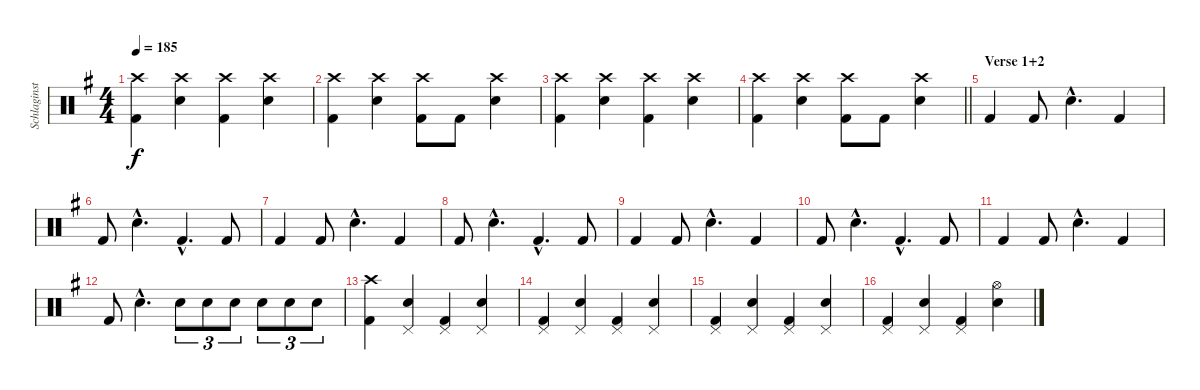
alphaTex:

\track ("Schlaginstrumente - Auswahl" "Schlaginst") {instrument percussion}
\staff {score}
\articulation defaults
\ts (4 4)
\tempo 185
\clef neutral
\ks eminor
("Kick (hit) 2" "Crash high (hit)").4{dy f} ("Snare (hit) 2" "Crash high (hit)").4 ("Kick (hit) 2" "Crash high (hit)").4 ("Snare (hit) 2" "Crash high (hit)").4 |
("Kick (hit) 2" "Crash high (hit)").4 ("Snare (hit) 2" "Crash high (hit)").4 ("Kick (hit) 2" "Crash high (hit)").8 "Kick (hit) 2".8 ("Snare (hit) 2" "Crash high (hit)").4 |
("Kick (hit) 2" "Crash high (hit)").4 ("Snare (hit) 2" "Crash high (hit)").4 ("Kick (hit) 2" "Crash high (hit)").4 ("Snare (hit) 2" "Crash high (hit)").4 |
\barLineRight lightlight
("Kick (hit) 2" "Crash high (hit)").4 ("Snare (hit) 2" "Crash high (hit)").4 ("Kick (hit) 2" "Crash high (hit)").8 "Kick (hit) 2".8 ("Snare (hit) 2" "Crash high (hit)").4 |
\section ("" "Verse 1+2")
"Kick (hit) 2".4 "Kick (hit) 2".8 "Snare (hit) 2"{hac}.4{d} "Kick (hit) 2".4 |
"Kick (hit) 2".8 "Snare (hit) 2"{hac}.4{d} "Kick (hit) 2"{hac}.4{d} "Kick (hit) 2".8 |
"Kick (hit) 2".4 "Kick (hit) 2".8 "Snare (hit) 2"{hac}.4{d} "Kick (hit) 2".4 |
"Kick (hit) 2".8 "Snare (hit) 2"{hac}.4{d} "Kick (hit) 2"{hac}.4{d} "Kick (hit) 2".8 |
"Kick (hit) 2".4 "Kick (hit) 2".8 "Snare (hit) 2"{hac}.4{d} "Kick (hit) 2".4 |
"Kick (hit) 2".8 "Snare (hit) 2"{hac}.4{d} "Kick (hit) 2"{hac}.4{d} "Kick (hit) 2".8 |
"Kick (hit) 2".4 "Kick (hit) 2".8 "Snare (hit) 2"{hac}.4{d} "Kick (hit) 2".4 |
"Kick (hit) 2".8 "Snare (hit) 2"{hac}.4{d} "Snare (hit) 2".8{tu (3 2)} "Snare (hit) 2".8{tu (3 2)} "Snare (hit) 2".8{tu (3 2)} "Snare (hit) 2".8{tu (3 2)} "Snare (hit) 2".8{tu (3 2)} "Snare (hit) 2".8{tu (3 2)} |
("Kick (hit) 2" "Crash high (hit)").4 ("Snare (hit) 2" "Pedal Hi-Hat (hit)").4 ("Kick (hit) 2" "Pedal Hi-Hat (hit)").4 ("Snare (hit) 2" "Pedal Hi-Hat (hit)").4 |
("Kick (hit) 2" "Pedal Hi-Hat (hit)").4 ("Snare (hit) 2" "Pedal Hi-Hat (hit)").4 ("Kick (hit) 2" "Pedal Hi-Hat (hit)").4 ("Snare (hit) 2" "Pedal Hi-Hat (hit)").4 |
("Kick (hit) 2" "Pedal Hi-Hat (hit)").4 ("Snare (hit) 2" "Pedal Hi-Hat (hit)").4 ("Kick (hit) 2" "Pedal Hi-Hat (hit)").4 ("Snare (hit) 2" "Pedal Hi-Hat (hit)").4 |
("Kick (hit) 2" "Pedal Hi-Hat (hit)").4 ("Snare (hit) 2" "Pedal Hi-Hat (hit)").4 ("Kick (hit) 2" "Pedal Hi-Hat (hit)").4 ("Snare (hit) 2" "Hi-Hat (open)").4
